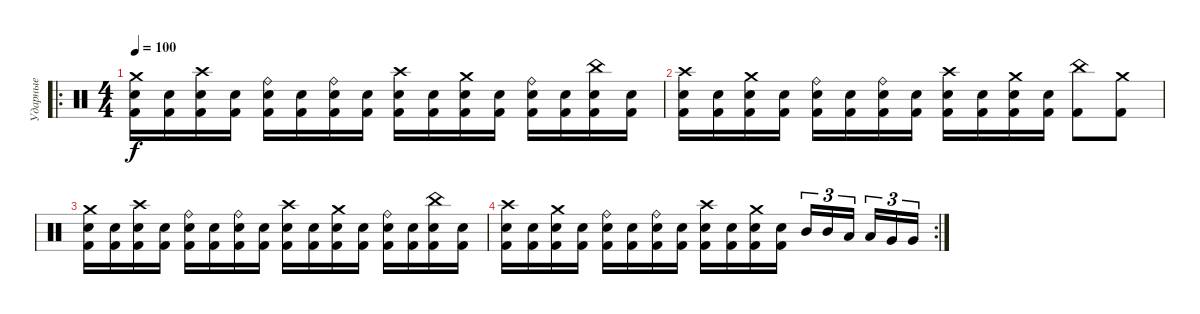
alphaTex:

\track ("Ударные" "Ударные") {instrument percussion}
\staff {score}
\articulation defaults
\ro
\ts (4 4)
\tempo 100
\clef neutral
\ks c
("Crash medium (hit)" "Snare (hit) 2" "Kick (hit) 2").16{dy f} ("Snare (hit) 2" "Kick (hit) 2").16 ("Crash high (hit)" "Snare (hit) 2" "Kick (hit) 2").16 ("Snare (hit) 2" "Kick (hit) 2").16 ("Ride (bell)" "Snare (hit) 2" "Kick (hit) 2").16 ("Snare (hit) 2" "Kick (hit) 2").16 ("Ride (bell)" "Snare (hit) 2" "Kick (hit) 2").16 ("Snare (hit) 2" "Kick (hit) 2").16 ("Crash high (hit)" "Snare (hit) 2" "Kick (hit) 2").16 ("Snare (hit) 2" "Kick (hit) 2").16 ("Crash medium (hit)" "Snare (hit) 2" "Kick (hit) 2").16 ("Snare (hit) 2" "Kick (hit) 2").16 ("Ride (bell)" "Snare (hit) 2" "Kick (hit) 2").16 ("Snare (hit) 2" "Kick (hit) 2").16 ("China (hit)" "Snare (hit) 2" "Kick (hit) 2").16 ("Snare (hit) 2" "Kick (hit) 2").16 |
("Crash high (hit)" "Snare (hit) 2" "Kick (hit) 2").16 ("Snare (hit) 2" "Kick (hit) 2").16 ("Crash medium (hit)" "Snare (hit) 2" "Kick (hit) 2").16 ("Snare (hit) 2" "Kick (hit) 2").16 ("Ride (bell)" "Snare (hit) 2" "Kick (hit) 2").16 ("Snare (hit) 2" "Kick (hit) 2").16 ("Ride (bell)" "Snare (hit) 2" "Kick (hit) 2").16 ("Snare (hit) 2" "Kick (hit) 2").16 ("Crash high (hit)" "Snare (hit) 2" "Kick (hit) 2").16 ("Snare (hit) 2" "Kick (hit) 2").16 ("Crash medium (hit)" "Snare (hit) 2" "Kick (hit) 2").16 ("Snare (hit) 2" "Kick (hit) 2").16 ("China (hit)" "Kick (hit) 2").8 ("Crash medium (hit)" "Kick (hit) 2").8 |
("Crash medium (hit)" "Snare (hit) 2" "Kick (hit) 2").16 ("Snare (hit) 2" "Kick (hit) 2").16 ("Crash high (hit)" "Snare (hit) 2" "Kick (hit) 2").16 ("Snare (hit) 2" "Kick (hit) 2").16 ("Ride (bell)" "Snare (hit) 2" "Kick (hit) 2").16 ("Snare (hit) 2" "Kick (hit) 2").16 ("Ride (bell)" "Snare (hit) 2" "Kick (hit) 2").16 ("Snare (hit) 2" "Kick (hit) 2").16 ("Crash high (hit)" "Snare (hit) 2" "Kick (hit) 2").16 ("Snare (hit) 2" "Kick (hit) 2").16 ("Crash medium (hit)" "Snare (hit) 2" "Kick (hit) 2").16 ("Snare (hit) 2" "Kick (hit) 2").16 ("Ride (bell)" "Snare (hit) 2" "Kick (hit) 2").16 ("Snare (hit) 2" "Kick (hit) 2").16 ("China (hit)" "Snare (hit) 2" "Kick (hit) 2").16 ("Snare (hit) 2" "Kick (hit) 2").16 |
\rc 2
("Crash high (hit)" "Snare (hit) 2" "Kick (hit) 2").16 ("Snare (hit) 2" "Kick (hit) 2").16 ("Crash medium (hit)" "Snare (hit) 2" "Kick (hit) 2").16 ("Snare (hit) 2" "Kick (hit) 2").16 ("Ride (bell)" "Snare (hit) 2" "Kick (hit) 2").16 ("Snare (hit) 2" "Kick (hit) 2").16 ("Ride (bell)" "Snare (hit) 2" "Kick (hit) 2").16 ("Snare (hit) 2" "Kick (hit) 2").16 ("Crash high (hit)" "Snare (hit) 2" "Kick (hit) 2").16 ("Snare (hit) 2" "Kick (hit) 2").16 ("Crash medium (hit)" "Snare (hit) 2" "Kick (hit) 2").16 ("Snare (hit) 2" "Kick (hit) 2").16 "Mid Tom (hit)".16{tu (3 2)} "Mid Tom (hit)".16{tu (3 2)} "Low Tom (hit)".16{tu (3 2) beam splitsecondary} "Low Tom (hit)".16{tu (3 2)} "Very Low Tom (hit)".16{tu (3 2)} "Very Low Tom (hit)".16{tu (3 2)}
